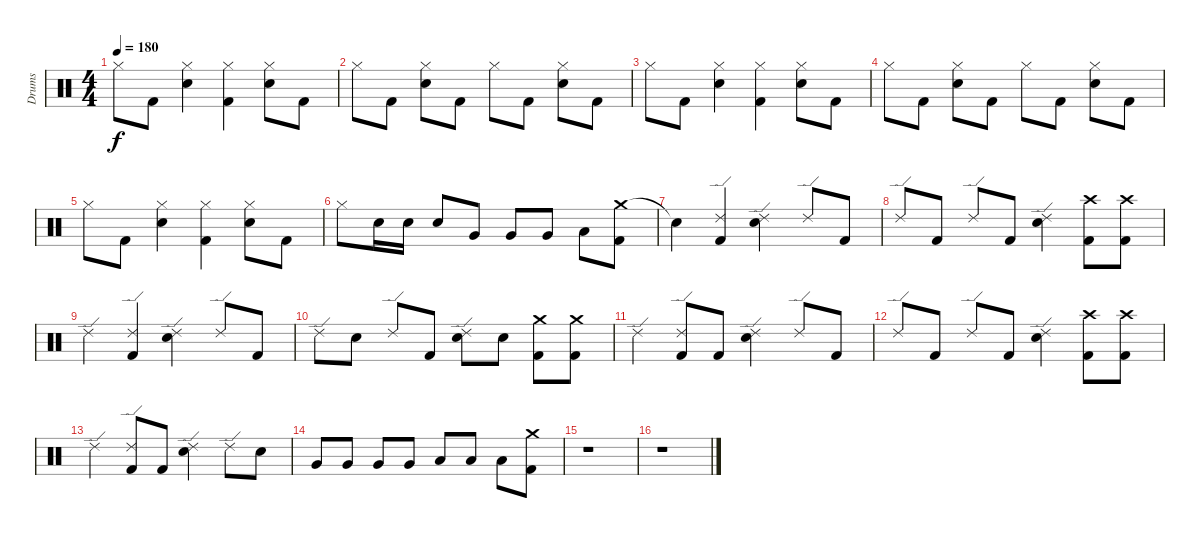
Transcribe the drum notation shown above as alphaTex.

\track ("Drums" "Drums") {instrument percussion}
\staff {score}
\articulation defaults
\ts (4 4)
\tempo 180
\clef neutral
\ks c "Hi-Hat (closed)".8{dy f} "Kick (hit) 2".8
("Hi-Hat (closed)" "Electric Snare (hit)").4 ("Hi-Hat (closed)" "Kick (hit) 2").4 ("Hi-Hat (closed)" "Electric Snare (hit)").8 "Kick (hit) 2".8 |
"Hi-Hat (closed)".8 "Kick (hit) 2".8 ("Hi-Hat (closed)" "Electric Snare (hit)").8 "Kick (hit) 2".8 "Hi-Hat (closed)".8 "Kick (hit) 2".8 ("Hi-Hat (closed)" "Electric Snare (hit)").8 "Kick (hit) 2".8 |
"Hi-Hat (closed)".8 "Kick (hit) 2".8 ("Hi-Hat (closed)" "Electric Snare (hit)").4 ("Hi-Hat (closed)" "Kick (hit) 2").4 ("Hi-Hat (closed)" "Electric Snare (hit)").8 "Kick (hit) 2".8 |
"Hi-Hat (closed)".8 "Kick (hit) 2".8 ("Hi-Hat (closed)" "Electric Snare (hit)").8 "Kick (hit) 2".8 "Hi-Hat (closed)".8 "Kick (hit) 2".8 ("Hi-Hat (closed)" "Electric Snare (hit)").8 "Kick (hit) 2".8 |
"Hi-Hat (closed)".8 "Kick (hit) 2".8 ("Hi-Hat (closed)" "Electric Snare (hit)").4 ("Hi-Hat (closed)" "Kick (hit) 2").4 ("Hi-Hat (closed)" "Electric Snare (hit)").8 "Kick (hit) 2".8 |
"Hi-Hat (closed)".8 "Electric Snare (hit)".16 "Electric Snare (hit)".16 "Electric Snare (hit)".8 "Very Low Tom (hit)".8 "Very Low Tom (hit)".8 "Very Low Tom (hit)".8 "Low Floor Tom (hit)".8 ("Crash medium (hit)" "Kick (hit) 2").8 |
"Snare (hit)"{t}.4 ("Ride (edge) 2" "Kick (hit) 2").4 ("Ride (edge) 2" "Electric Snare (hit)").4 "Ride (edge) 2".8 "Kick (hit) 2".8 |
"Ride (edge) 2".8 "Kick (hit) 2".8 "Ride (edge) 2".8 "Kick (hit) 2".8 ("Ride (edge) 2" "Electric Snare (hit)").4 ("Crash high (hit)" "Kick (hit) 2").8 ("Crash high (hit)" "Kick (hit) 2").8 |
"Ride (edge) 2".4 ("Ride (edge) 2" "Kick (hit) 2").4 ("Ride (edge) 2" "Electric Snare (hit)").4 "Ride (edge) 2".8 "Kick (hit) 2".8 |
"Ride (edge) 2".8 "Electric Snare (hit)".8 "Ride (edge) 2".8 "Kick (hit) 2".8 ("Ride (edge) 2" "Electric Snare (hit)").8 "Electric Snare (hit)".8 ("Crash medium (hit)" "Kick (hit) 2").8 ("Crash medium (hit)" "Kick (hit) 2").8 |
"Ride (edge) 2".4 ("Ride (edge) 2" "Kick (hit) 2").8 "Kick (hit) 2".8 ("Ride (edge) 2" "Electric Snare (hit)").4 "Ride (edge) 2".8 "Kick (hit) 2".8 |
"Ride (edge) 2".8 "Kick (hit) 2".8 "Ride (edge) 2".8 "Kick (hit) 2".8 ("Ride (edge) 2" "Electric Snare (hit)").4 ("Crash high (hit)" "Kick (hit) 2").8 ("Crash high (hit)" "Kick (hit) 2").8 |
"Ride (edge) 2".4 ("Ride (edge) 2" "Kick (hit) 2").8 "Kick (hit) 2".8 ("Ride (edge) 2" "Electric Snare (hit)").4 "Ride (edge) 2".8 "Electric Snare (hit)".8 |
"Very Low Tom (hit)".8 "Very Low Tom (hit)".8 "Very Low Tom (hit)".8 "Very Low Tom (hit)".8 "Low Floor Tom (hit)".8 "Low Floor Tom (hit)".8 "Low Floor Tom (hit)".8 ("Crash medium (hit)" "Kick (hit) 2").8 |
r.1 |
r.1
